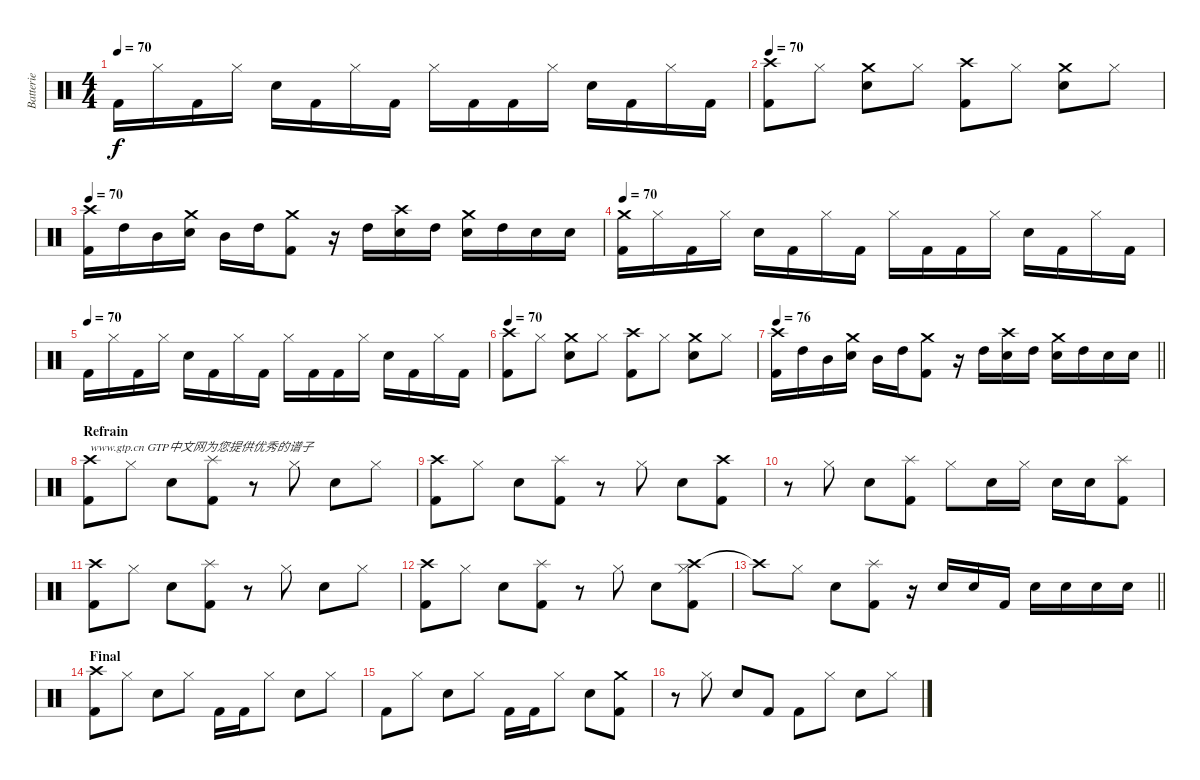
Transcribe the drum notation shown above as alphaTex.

\track ("Batterie" "Batterie") {instrument percussion}
\staff {score}
\articulation defaults
\ts (4 4)
\tempo 70
\clef neutral
\ks c "Kick (hit) 2".16{dy f} "Hi-Hat (closed)".16 "Kick (hit) 2".16 "Hi-Hat (closed)".16 "Electric Snare (hit)".16 "Kick (hit) 2".16 "Hi-Hat (closed)".16 "Kick (hit) 2".16 "Hi-Hat (closed)".16 "Kick (hit) 2".16 "Kick (hit) 2".16 "Hi-Hat (closed)".16 "Electric Snare (hit)".16 "Kick (hit) 2".16 "Hi-Hat (closed)".16 "Kick (hit) 2".16
|
\tempo 70
("Crash high (hit)" "Kick (hit) 2").8 "Hi-Hat (closed)".8 ("Crash medium (hit)" "Electric Snare (hit)").8 "Hi-Hat (closed)".8 ("Crash high (hit)" "Kick (hit) 2").8 "Hi-Hat (closed)".8 ("Crash medium (hit)" "Electric Snare (hit)").8 "Hi-Hat (closed)".8 |
\tempo 70
("Crash high (hit)" "Kick (hit) 2").16 "High Tom (hit)".16 "Mid Tom (hit)".16 ("Crash medium (hit)" "Electric Snare (hit)").16 "Mid Tom (hit)".16 "High Tom (hit)".16 ("Crash medium (hit)" "Kick (hit) 2").8 r.16 "High Tom (hit)".16 ("Crash high (hit)" "Electric Snare (hit)").16 "High Tom (hit)".16 ("Crash medium (hit)" "Electric Snare (hit)").16 "High Tom (hit)".16 "Electric Snare (hit)".16 "Electric Snare (hit)".16 |
\tempo 70
("Crash medium (hit)" "Kick (hit) 2").16 "Hi-Hat (closed)".16 "Kick (hit) 2".16 "Hi-Hat (closed)".16 "Electric Snare (hit)".16 "Kick (hit) 2".16 "Hi-Hat (closed)".16 "Kick (hit) 2".16 "Hi-Hat (closed)".16 "Kick (hit) 2".16 "Kick (hit) 2".16 "Hi-Hat (closed)".16 "Electric Snare (hit)".16 "Kick (hit) 2".16 "Hi-Hat (closed)".16 "Kick (hit) 2".16 |
\tempo (70)
"Kick (hit) 2".16 "Hi-Hat (closed)".16 "Kick (hit) 2".16 "Hi-Hat (closed)".16 "Electric Snare (hit)".16 "Kick (hit) 2".16 "Hi-Hat (closed)".16 "Kick (hit) 2".16 "Hi-Hat (closed)".16 "Kick (hit) 2".16 "Kick (hit) 2".16 "Hi-Hat (closed)".16 "Electric Snare (hit)".16 "Kick (hit) 2".16 "Hi-Hat (closed)".16 "Kick (hit) 2".16 |
\tempo 70
("Crash high (hit)" "Kick (hit) 2").8 "Hi-Hat (closed)".8 ("Crash medium (hit)" "Electric Snare (hit)").8 "Hi-Hat (closed)".8 ("Crash high (hit)" "Kick (hit) 2").8 "Hi-Hat (closed)".8 ("Crash medium (hit)" "Electric Snare (hit)").8 "Hi-Hat (closed)".8 |
\tempo 76
\barLineRight lightlight
("Crash high (hit)" "Kick (hit) 2").16 "High Tom (hit)".16 "Mid Tom (hit)".16 ("Crash medium (hit)" "Electric Snare (hit)").16 "Mid Tom (hit)".16 "High Tom (hit)".16 ("Crash medium (hit)" "Kick (hit) 2").8 r.16 "High Tom (hit)".16 ("Crash high (hit)" "Electric Snare (hit)").16 "High Tom (hit)".16 ("Crash medium (hit)" "Electric Snare (hit)").16 "High Tom (hit)".16 "Electric Snare (hit)".16 "Electric Snare (hit)".16 |
\section ("" "Refrain")
("Crash high (hit)" "Kick (hit) 2").8{txt "www.gtp.cn GTP中文网为您提供优秀的谱子"} "Hi-Hat (closed)".8 "Electric Snare (hit)".8 ("Splash (hit)" "Kick (hit) 2").8 r.8 "Hi-Hat (closed)".8 "Electric Snare (hit)".8 "Hi-Hat (closed)".8 |
("Crash high (hit)" "Kick (hit) 2").8 "Hi-Hat (closed)".8 "Electric Snare (hit)".8 ("Splash (hit)" "Kick (hit) 2").8 r.8 "Hi-Hat (closed)".8 "Electric Snare (hit)".8 ("Crash high (hit)" "Kick (hit) 2").8 |
r.8 "Hi-Hat (closed)".8 "Electric Snare (hit)".8 ("Splash (hit)" "Kick (hit) 2").8 "Hi-Hat (closed)".8 "Electric Snare (hit)".16 "Hi-Hat (closed)".16 "Electric Snare (hit)".16 "Electric Snare (hit)".16 ("Splash (hit)" "Kick (hit) 2").8 |
("Crash high (hit)" "Kick (hit) 2").8 "Hi-Hat (closed)".8 "Electric Snare (hit)".8 ("Splash (hit)" "Kick (hit) 2").8 r.8 "Hi-Hat (closed)".8 "Electric Snare (hit)".8 "Hi-Hat (closed)".8 |
("Crash high (hit)" "Kick (hit) 2").8 "Hi-Hat (closed)".8 "Electric Snare (hit)".8 ("Splash (hit)" "Kick (hit) 2").8 r.8 "Hi-Hat (closed)".8 "Electric Snare (hit)".8 ("Crash high (hit)" "Hi-Hat (closed)" "Kick (hit) 2").8 |
\barLineRight lightlight "Crash high (hit)"{t}.8 "Hi-Hat (closed)".8 "Electric Snare (hit)".8
("Splash (hit)" "Kick (hit) 2").8 r.16 "Electric Snare (hit)".16 "Electric Snare (hit)".16 "Kick (hit) 2".16 "Electric Snare (hit)".16 "Electric Snare (hit)".16 "Electric Snare (hit)".16 "Electric Snare (hit)".16 |
\section ("" "Final")
("Crash high (hit)" "Kick (hit) 2").8 "Hi-Hat (closed)".8 "Electric Snare (hit)".8 "Hi-Hat (closed)".8 "Kick (hit) 2".16 "Kick (hit) 2".16 "Hi-Hat (closed)".8 "Electric Snare (hit)".8 "Hi-Hat (closed)".8 |
"Kick (hit) 2".8 "Hi-Hat (closed)".8 "Electric Snare (hit)".8 "Hi-Hat (closed)".8 "Kick (hit) 2".16 "Kick (hit) 2".16 "Hi-Hat (closed)".8 "Electric Snare (hit)".8 ("Crash medium (hit)" "Kick (hit) 2").8 |
r.8 "Hi-Hat (closed)".8 "Electric Snare (hit)".8 "Kick (hit) 2".8 "Kick (hit) 2".8 "Hi-Hat (closed)".8 "Electric Snare (hit)".8 "Hi-Hat (closed)".8
